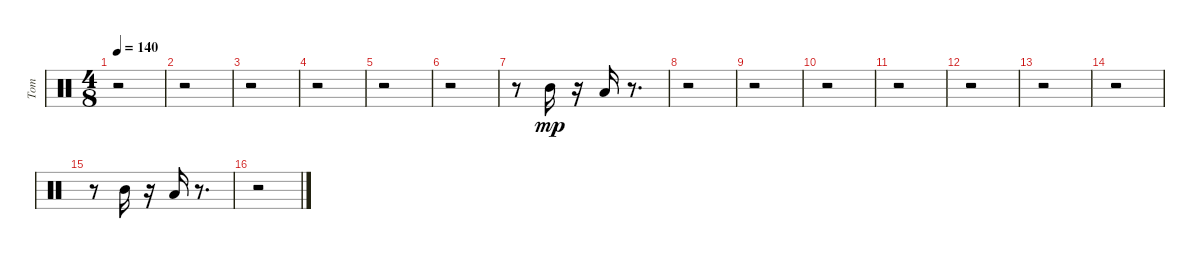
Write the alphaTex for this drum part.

\track ("Tom" "Tom") {instrument percussion}
\staff {score}
\articulation defaults
\ts (4 8)
\tempo 140
\clef neutral
\ks c
r.2{dy mp} |
r.2 |
r.2 |
r.2 |
r.2 |
r.2 |
r.8 "Mid Tom (hit)".16 r.16 "Low Tom (hit)".16 r.8{d} |
r.2 |
r.2 |
r.2 |
r.2 |
r.2 |
r.2 |
r.2 |
r.8 "Mid Tom (hit)".16 r.16 "Low Tom (hit)".16 r.8{d} |
r.2
